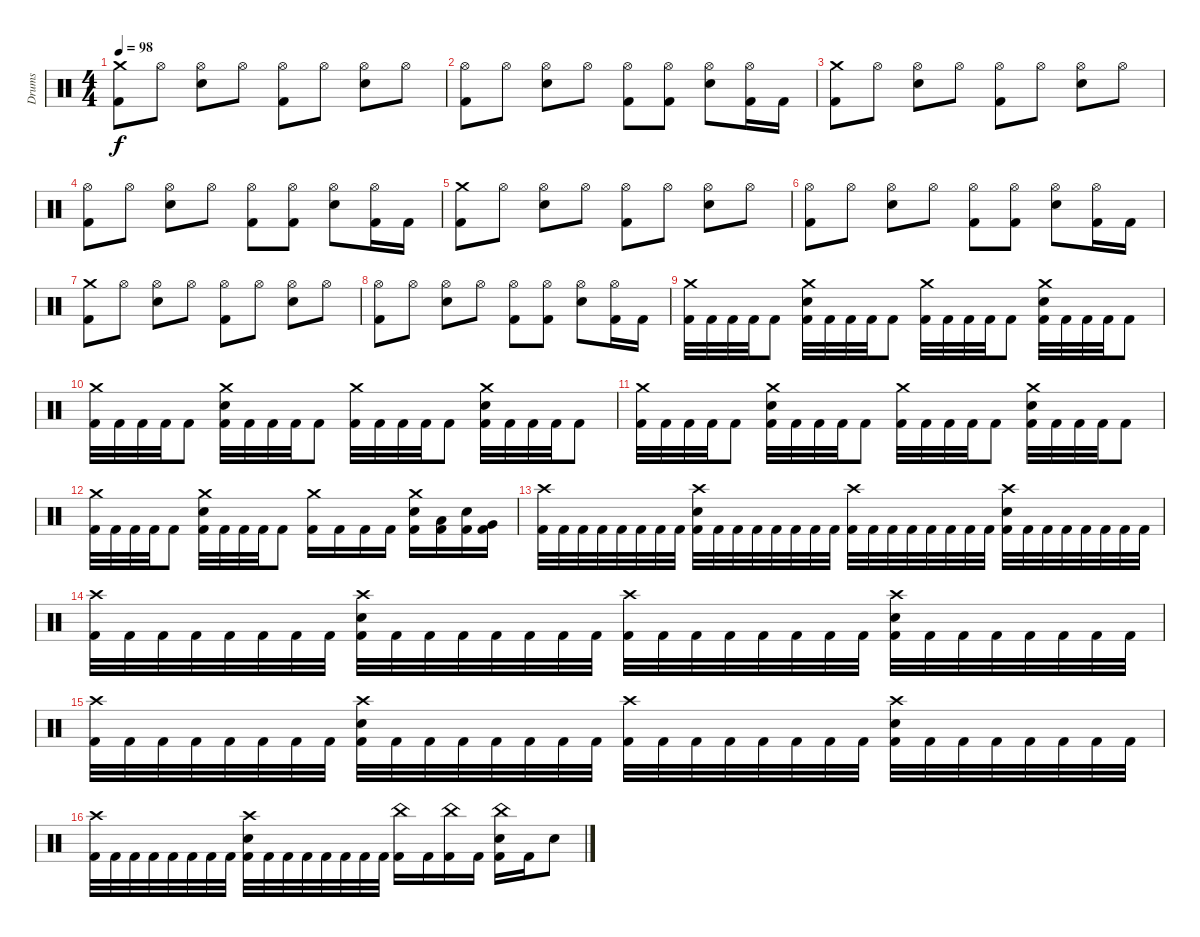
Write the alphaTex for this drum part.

\track ("Drums" "Drums") {instrument percussion}
\staff {score}
\articulation defaults
\ts (4 4)
\tempo 98
\clef neutral
\ks c
("Crash medium (hit)" "Kick (hit) 2").8{dy f} "Hi-Hat (open)".8 ("Hi-Hat (open)" "Snare (hit) 2").8 "Hi-Hat (open)".8 ("Hi-Hat (open)" "Kick (hit) 2").8 "Hi-Hat (open)".8 ("Hi-Hat (open)" "Snare (hit) 2").8 "Hi-Hat (open)".8 |
("Hi-Hat (open)" "Kick (hit) 2").8 "Hi-Hat (open)".8 ("Hi-Hat (open)" "Snare (hit) 2").8 "Hi-Hat (open)".8 ("Hi-Hat (open)" "Kick (hit) 2").8 ("Hi-Hat (open)" "Kick (hit) 2").8 ("Hi-Hat (open)" "Snare (hit) 2").8 ("Hi-Hat (open)" "Kick (hit) 2").16 "Kick (hit) 2".16 |
("Crash medium (hit)" "Kick (hit) 2").8 "Hi-Hat (open)".8 ("Hi-Hat (open)" "Snare (hit) 2").8 "Hi-Hat (open)".8 ("Hi-Hat (open)" "Kick (hit) 2").8 "Hi-Hat (open)".8 ("Hi-Hat (open)" "Snare (hit) 2").8 "Hi-Hat (open)".8 |
("Hi-Hat (open)" "Kick (hit) 2").8 "Hi-Hat (open)".8 ("Hi-Hat (open)" "Snare (hit) 2").8 "Hi-Hat (open)".8 ("Hi-Hat (open)" "Kick (hit) 2").8 ("Hi-Hat (open)" "Kick (hit) 2").8 ("Hi-Hat (open)" "Snare (hit) 2").8 ("Hi-Hat (open)" "Kick (hit) 2").16 "Kick (hit) 2".16 |
("Crash medium (hit)" "Kick (hit) 2").8 "Hi-Hat (open)".8 ("Hi-Hat (open)" "Snare (hit) 2").8 "Hi-Hat (open)".8 ("Hi-Hat (open)" "Kick (hit) 2").8 "Hi-Hat (open)".8 ("Hi-Hat (open)" "Snare (hit) 2").8 "Hi-Hat (open)".8 |
("Hi-Hat (open)" "Kick (hit) 2").8 "Hi-Hat (open)".8 ("Hi-Hat (open)" "Snare (hit) 2").8 "Hi-Hat (open)".8 ("Hi-Hat (open)" "Kick (hit) 2").8 ("Hi-Hat (open)" "Kick (hit) 2").8 ("Hi-Hat (open)" "Snare (hit) 2").8 ("Hi-Hat (open)" "Kick (hit) 2").16 "Kick (hit) 2".16 |
("Crash medium (hit)" "Kick (hit) 2").8 "Hi-Hat (open)".8 ("Hi-Hat (open)" "Snare (hit) 2").8 "Hi-Hat (open)".8 ("Hi-Hat (open)" "Kick (hit) 2").8 "Hi-Hat (open)".8 ("Hi-Hat (open)" "Snare (hit) 2").8 "Hi-Hat (open)".8 |
("Hi-Hat (open)" "Kick (hit) 2").8 "Hi-Hat (open)".8 ("Hi-Hat (open)" "Snare (hit) 2").8 "Hi-Hat (open)".8 ("Hi-Hat (open)" "Kick (hit) 2").8 ("Hi-Hat (open)" "Kick (hit) 2").8 ("Hi-Hat (open)" "Snare (hit) 2").8 ("Hi-Hat (open)" "Kick (hit) 2").16 "Kick (hit) 2".16 |
("Crash medium (hit)" "Kick (hit) 2").32 "Kick (hit) 2".32 "Kick (hit) 2".32 "Kick (hit) 2".32 "Kick (hit) 2".8 ("Crash medium (hit)" "Snare (hit) 2" "Kick (hit) 2").32 "Kick (hit) 2".32 "Kick (hit) 2".32 "Kick (hit) 2".32 "Kick (hit) 2".8 ("Crash medium (hit)" "Kick (hit) 2").32 "Kick (hit) 2".32 "Kick (hit) 2".32 "Kick (hit) 2".32 "Kick (hit) 2".8 ("Crash medium (hit)" "Snare (hit) 2" "Kick (hit) 2").32 "Kick (hit) 2".32 "Kick (hit) 2".32 "Kick (hit) 2".32 "Kick (hit) 2".8 |
("Crash medium (hit)" "Kick (hit) 2").32 "Kick (hit) 2".32 "Kick (hit) 2".32 "Kick (hit) 2".32 "Kick (hit) 2".8 ("Crash medium (hit)" "Snare (hit) 2" "Kick (hit) 2").32 "Kick (hit) 2".32 "Kick (hit) 2".32 "Kick (hit) 2".32 "Kick (hit) 2".8 ("Crash medium (hit)" "Kick (hit) 2").32 "Kick (hit) 2".32 "Kick (hit) 2".32 "Kick (hit) 2".32 "Kick (hit) 2".8 ("Crash medium (hit)" "Snare (hit) 2" "Kick (hit) 2").32 "Kick (hit) 2".32 "Kick (hit) 2".32 "Kick (hit) 2".32 "Kick (hit) 2".8 |
("Crash medium (hit)" "Kick (hit) 2").32 "Kick (hit) 2".32 "Kick (hit) 2".32 "Kick (hit) 2".32 "Kick (hit) 2".8 ("Crash medium (hit)" "Snare (hit) 2" "Kick (hit) 2").32 "Kick (hit) 2".32 "Kick (hit) 2".32 "Kick (hit) 2".32 "Kick (hit) 2".8 ("Crash medium (hit)" "Kick (hit) 2").32 "Kick (hit) 2".32 "Kick (hit) 2".32 "Kick (hit) 2".32 "Kick (hit) 2".8 ("Crash medium (hit)" "Snare (hit) 2" "Kick (hit) 2").32 "Kick (hit) 2".32 "Kick (hit) 2".32 "Kick (hit) 2".32 "Kick (hit) 2".8 |
("Crash medium (hit)" "Kick (hit) 2").32 "Kick (hit) 2".32 "Kick (hit) 2".32 "Kick (hit) 2".32 "Kick (hit) 2".8 ("Crash medium (hit)" "Snare (hit) 2" "Kick (hit) 2").32 "Kick (hit) 2".32 "Kick (hit) 2".32 "Kick (hit) 2".32 "Kick (hit) 2".8 ("Crash medium (hit)" "Kick (hit) 2").16 "Kick (hit) 2".16 "Kick (hit) 2".16 "Kick (hit) 2".16 ("Crash medium (hit)" "Snare (hit) 2" "Kick (hit) 2").16 ("Low Tom (hit)" "Kick (hit) 2").16 ("Snare (hit) 2" "Kick (hit) 2").16 ("Very Low Tom (hit)" "Kick (hit) 2").16 |
("Crash high (hit)" "Kick (hit) 2").32 "Kick (hit) 2".32 "Kick (hit) 2".32 "Kick (hit) 2".32 "Kick (hit) 2".32 "Kick (hit) 2".32 "Kick (hit) 2".32 "Kick (hit) 2".32 ("Crash high (hit)" "Snare (hit) 2" "Kick (hit) 2").32 "Kick (hit) 2".32 "Kick (hit) 2".32 "Kick (hit) 2".32 "Kick (hit) 2".32 "Kick (hit) 2".32 "Kick (hit) 2".32 "Kick (hit) 2".32 ("Crash high (hit)" "Kick (hit) 2").32 "Kick (hit) 2".32 "Kick (hit) 2".32 "Kick (hit) 2".32 "Kick (hit) 2".32 "Kick (hit) 2".32 "Kick (hit) 2".32 "Kick (hit) 2".32 ("Crash high (hit)" "Snare (hit) 2" "Kick (hit) 2").32 "Kick (hit) 2".32 "Kick (hit) 2".32 "Kick (hit) 2".32 "Kick (hit) 2".32 "Kick (hit) 2".32 "Kick (hit) 2".32 "Kick (hit) 2".32 |
("Crash high (hit)" "Kick (hit) 2").32 "Kick (hit) 2".32 "Kick (hit) 2".32 "Kick (hit) 2".32 "Kick (hit) 2".32 "Kick (hit) 2".32 "Kick (hit) 2".32 "Kick (hit) 2".32 ("Crash high (hit)" "Snare (hit) 2" "Kick (hit) 2").32 "Kick (hit) 2".32 "Kick (hit) 2".32 "Kick (hit) 2".32 "Kick (hit) 2".32 "Kick (hit) 2".32 "Kick (hit) 2".32 "Kick (hit) 2".32 ("Crash high (hit)" "Kick (hit) 2").32 "Kick (hit) 2".32 "Kick (hit) 2".32 "Kick (hit) 2".32 "Kick (hit) 2".32 "Kick (hit) 2".32 "Kick (hit) 2".32 "Kick (hit) 2".32 ("Crash high (hit)" "Snare (hit) 2" "Kick (hit) 2").32 "Kick (hit) 2".32 "Kick (hit) 2".32 "Kick (hit) 2".32 "Kick (hit) 2".32 "Kick (hit) 2".32 "Kick (hit) 2".32 "Kick (hit) 2".32 |
("Crash high (hit)" "Kick (hit) 2").32 "Kick (hit) 2".32 "Kick (hit) 2".32 "Kick (hit) 2".32 "Kick (hit) 2".32 "Kick (hit) 2".32 "Kick (hit) 2".32 "Kick (hit) 2".32 ("Crash high (hit)" "Snare (hit) 2" "Kick (hit) 2").32 "Kick (hit) 2".32 "Kick (hit) 2".32 "Kick (hit) 2".32 "Kick (hit) 2".32 "Kick (hit) 2".32 "Kick (hit) 2".32 "Kick (hit) 2".32 ("Crash high (hit)" "Kick (hit) 2").32 "Kick (hit) 2".32 "Kick (hit) 2".32 "Kick (hit) 2".32 "Kick (hit) 2".32 "Kick (hit) 2".32 "Kick (hit) 2".32 "Kick (hit) 2".32 ("Crash high (hit)" "Snare (hit) 2" "Kick (hit) 2").32 "Kick (hit) 2".32 "Kick (hit) 2".32 "Kick (hit) 2".32 "Kick (hit) 2".32 "Kick (hit) 2".32 "Kick (hit) 2".32 "Kick (hit) 2".32 |
("Crash high (hit)" "Kick (hit) 2").32 "Kick (hit) 2".32 "Kick (hit) 2".32 "Kick (hit) 2".32 "Kick (hit) 2".32 "Kick (hit) 2".32 "Kick (hit) 2".32 "Kick (hit) 2".32 ("Crash high (hit)" "Snare (hit) 2" "Kick (hit) 2").32 "Kick (hit) 2".32 "Kick (hit) 2".32 "Kick (hit) 2".32 "Kick (hit) 2".32 "Kick (hit) 2".32 "Kick (hit) 2".32 "Kick (hit) 2".32 ("China (hit)" "Kick (hit) 2").16 "Kick (hit) 2".16 ("China (hit)" "Kick (hit) 2").16 "Kick (hit) 2".16 ("China (hit)" "Snare (hit) 2" "Kick (hit) 2").16 "Kick (hit) 2".16 "Snare (hit) 2".8
